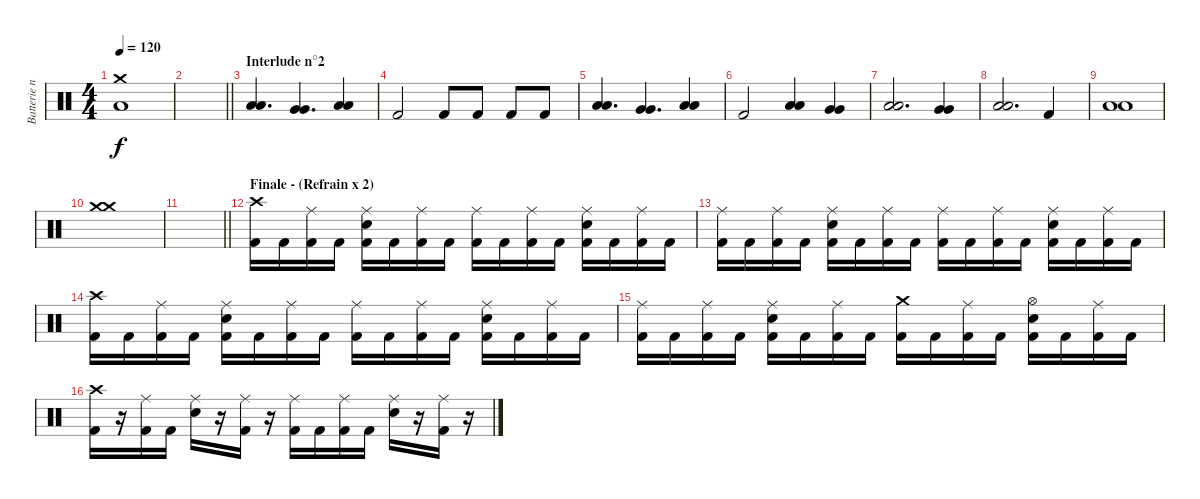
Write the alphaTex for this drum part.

\track ("Batterie n°3" "Batterie n") {instrument percussion}
\staff {score}
\articulation defaults
\ts (4 4)
\tempo 120
\clef neutral
\ks c
("Crash medium (hit)" "Low Floor Tom (hit)").1{dy f} |
\barLineRight lightlight
|
\section ("" "Interlude n°2")
("Low Tom (hit)" "Low Tom (hit)").4{d} ("Very Low Tom (hit)" "Very Low Tom (hit)").4{d} ("Low Floor Tom (hit)" "Low Floor Tom (hit)").4 |
"Kick (hit) 2".2 "Kick (hit) 2".8 "Kick (hit) 2".8 "Kick (hit) 2".8 "Kick (hit) 2".8 |
("Low Tom (hit)" "Low Tom (hit)").4{d} ("Very Low Tom (hit)" "Very Low Tom (hit)").4{d} ("Low Floor Tom (hit)" "Low Floor Tom (hit)").4 |
"Kick (hit) 2".2 ("Low Floor Tom (hit)" "Low Floor Tom (hit)").4 ("Very Low Tom (hit)" "Very Low Tom (hit)").4 |
("Low Tom (hit)" "Low Tom (hit)").2{d} ("Very Low Tom (hit)" "Very Low Tom (hit)").4 |
("Low Floor Tom (hit)" "Low Floor Tom (hit)").2{d} "Kick (hit) 2".4 |
("Low Floor Tom (hit)" "Low Floor Tom (hit)").1 |
("Crash medium (hit)" "Crash medium (hit)").1 |
\barLineRight lightlight
|
\section ("" "Finale - (Refrain x 2)")
("Crash high (hit)" "Kick (hit) 2").16 "Kick (hit) 2".16 ("Ride (middle)" "Kick (hit) 2").16 "Kick (hit) 2".16 ("Ride (middle)" "Snare (hit) 2" "Kick (hit) 2").16 "Kick (hit) 2".16 ("Ride (middle)" "Kick (hit) 2").16 "Kick (hit) 2".16 ("Ride (middle)" "Kick (hit) 2").16 "Kick (hit) 2".16 ("Ride (middle)" "Kick (hit) 2").16 "Kick (hit) 2".16 ("Ride (middle)" "Snare (hit) 2" "Kick (hit) 2").16 "Kick (hit) 2".16 ("Ride (middle)" "Kick (hit) 2").16 "Kick (hit) 2".16 |
("Ride (middle)" "Kick (hit) 2").16 "Kick (hit) 2".16 ("Ride (middle)" "Kick (hit) 2").16 "Kick (hit) 2".16 ("Ride (middle)" "Snare (hit) 2" "Kick (hit) 2").16 "Kick (hit) 2".16 ("Ride (middle)" "Kick (hit) 2").16 "Kick (hit) 2".16 ("Ride (middle)" "Kick (hit) 2").16 "Kick (hit) 2".16 ("Ride (middle)" "Kick (hit) 2").16 "Kick (hit) 2".16 ("Ride (middle)" "Snare (hit) 2" "Kick (hit) 2").16 "Kick (hit) 2".16 ("Ride (middle)" "Kick (hit) 2").16 "Kick (hit) 2".16 |
("Crash high (hit)" "Kick (hit) 2").16 "Kick (hit) 2".16 ("Ride (middle)" "Kick (hit) 2").16 "Kick (hit) 2".16 ("Ride (middle)" "Snare (hit) 2" "Kick (hit) 2").16 "Kick (hit) 2".16 ("Ride (middle)" "Kick (hit) 2").16 "Kick (hit) 2".16 ("Ride (middle)" "Kick (hit) 2").16 "Kick (hit) 2".16 ("Ride (middle)" "Kick (hit) 2").16 "Kick (hit) 2".16 ("Ride (middle)" "Snare (hit) 2" "Kick (hit) 2").16 "Kick (hit) 2".16 ("Ride (middle)" "Kick (hit) 2").16 "Kick (hit) 2".16 |
("Ride (middle)" "Kick (hit) 2").16 "Kick (hit) 2".16 ("Ride (middle)" "Kick (hit) 2").16 "Kick (hit) 2".16 ("Ride (middle)" "Snare (hit) 2" "Kick (hit) 2").16 "Kick (hit) 2".16 ("Ride (middle)" "Kick (hit) 2").16 "Kick (hit) 2".16 ("Crash medium (hit)" "Kick (hit) 2").16 "Kick (hit) 2".16 ("Ride (middle)" "Kick (hit) 2").16 "Kick (hit) 2".16 ("Hi-Hat (open)" "Snare (hit) 2" "Kick (hit) 2").16 "Kick (hit) 2".16 ("Ride (middle)" "Kick (hit) 2").16 "Kick (hit) 2".16 |
("Crash high (hit)" "Kick (hit) 2").16 r.16 ("Ride (middle)" "Kick (hit) 2").16 "Kick (hit) 2".16 ("Ride (middle)" "Snare (hit) 2").16 r.16 ("Ride (middle)" "Kick (hit) 2").16 r.16 ("Ride (middle)" "Kick (hit) 2").16 "Kick (hit) 2".16 ("Ride (middle)" "Kick (hit) 2").16 "Kick (hit) 2".16 ("Ride (middle)" "Snare (hit) 2").16 r.16 ("Ride (middle)" "Kick (hit) 2").16 r.16
